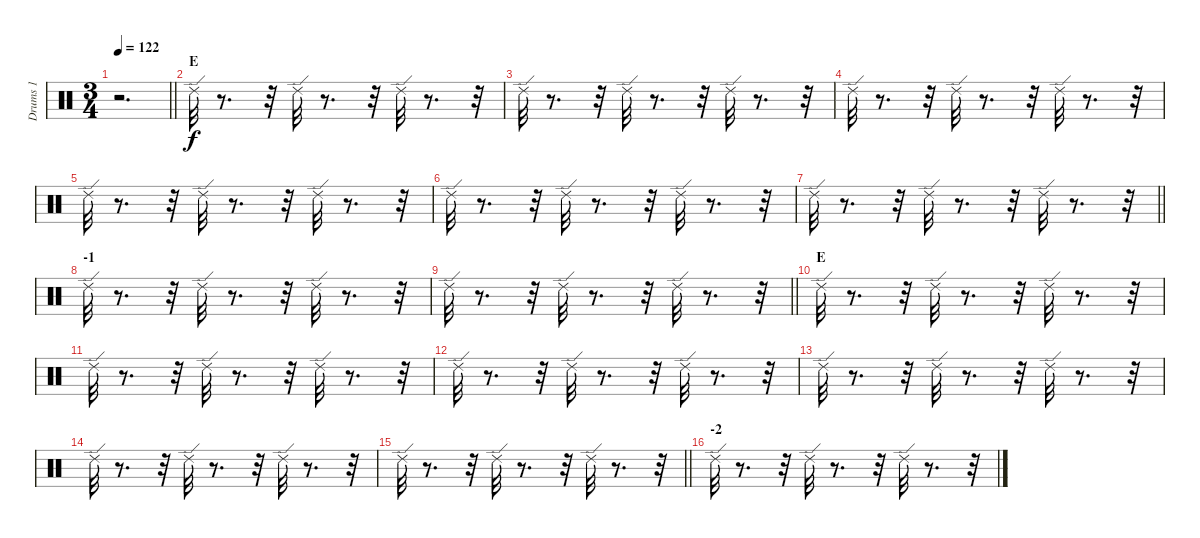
\track ("Drums 1" "Drums 1") {instrument percussion}
\staff {score}
\articulation defaults
\ts (3 4)
\tempo 122
\clef neutral
\barLineRight lightlight
\ks c
r.2{d dy f} |
\section ("" "E")
"Ride (edge) 2".32 r.8{d} r.32 "Ride (edge) 2".32 r.8{d} r.32 "Ride (edge) 2".32 r.8{d} r.32 |
"Ride (edge) 2".32 r.8{d} r.32 "Ride (edge) 2".32 r.8{d} r.32 "Ride (edge) 2".32 r.8{d} r.32 |
"Ride (edge) 2".32 r.8{d} r.32 "Ride (edge) 2".32 r.8{d} r.32 "Ride (edge) 2".32 r.8{d} r.32 |
"Ride (edge) 2".32 r.8{d} r.32 "Ride (edge) 2".32 r.8{d} r.32 "Ride (edge) 2".32 r.8{d} r.32 |
"Ride (edge) 2".32 r.8{d} r.32 "Ride (edge) 2".32 r.8{d} r.32 "Ride (edge) 2".32 r.8{d} r.32 |
\barLineRight lightlight "Ride (edge) 2".32
r.8{d} r.32 "Ride (edge) 2".32 r.8{d} r.32 "Ride (edge) 2".32 r.8{d} r.32 |
\section ("" "-1")
"Ride (edge) 2".32 r.8{d} r.32 "Ride (edge) 2".32 r.8{d} r.32 "Ride (edge) 2".32 r.8{d} r.32 |
\barLineRight lightlight "Ride (edge) 2".32
r.8{d} r.32 "Ride (edge) 2".32 r.8{d} r.32 "Ride (edge) 2".32 r.8{d} r.32 |
\section ("" "E")
"Ride (edge) 2".32 r.8{d} r.32 "Ride (edge) 2".32 r.8{d} r.32 "Ride (edge) 2".32 r.8{d} r.32 |
"Ride (edge) 2".32 r.8{d} r.32 "Ride (edge) 2".32 r.8{d} r.32 "Ride (edge) 2".32 r.8{d} r.32 |
"Ride (edge) 2".32 r.8{d} r.32 "Ride (edge) 2".32 r.8{d} r.32 "Ride (edge) 2".32 r.8{d} r.32 |
"Ride (edge) 2".32 r.8{d} r.32 "Ride (edge) 2".32 r.8{d} r.32 "Ride (edge) 2".32 r.8{d} r.32 |
"Ride (edge) 2".32 r.8{d} r.32 "Ride (edge) 2".32 r.8{d} r.32 "Ride (edge) 2".32 r.8{d} r.32 |
\barLineRight lightlight "Ride (edge) 2".32
r.8{d} r.32 "Ride (edge) 2".32 r.8{d} r.32 "Ride (edge) 2".32 r.8{d} r.32 |
\section ("" "-2")
"Ride (edge) 2".32 r.8{d} r.32 "Ride (edge) 2".32 r.8{d} r.32 "Ride (edge) 2".32 r.8{d} r.32
